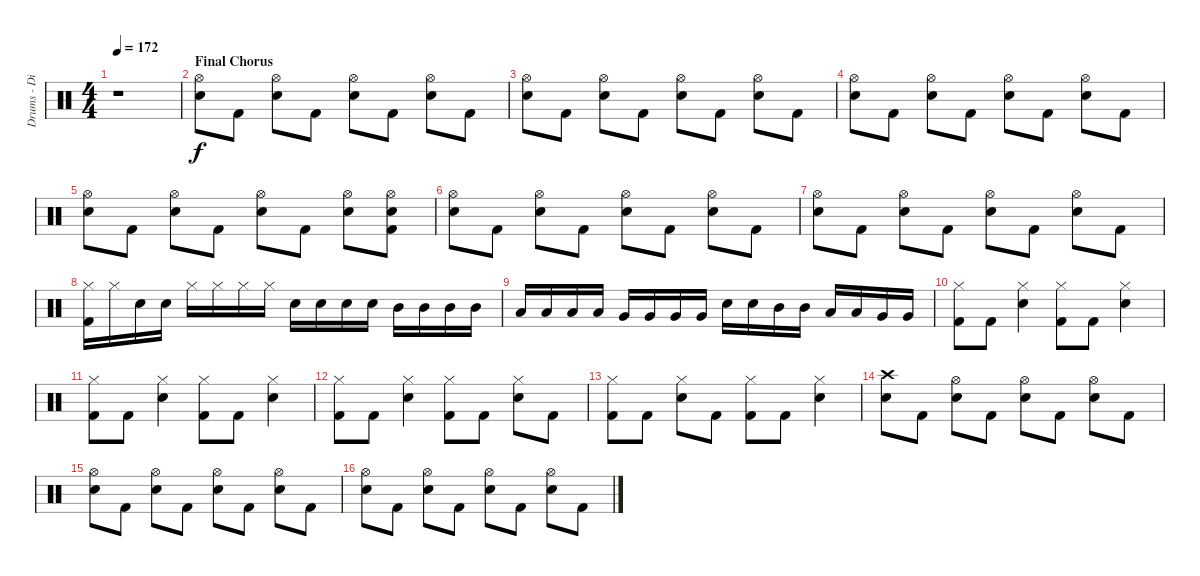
\track ("Drums - Dino Campanella" "Drums - Di") {instrument percussion}
\staff {score}
\articulation defaults
\ts (4 4)
\tempo 172
\clef neutral
\ks c
r.1{dy ppp} |
\section ("" "Final Chorus")
("Hi-Hat (open)" "Electric Snare (hit)").8{dy f} "Kick (hit) 2".8 ("Hi-Hat (open)" "Electric Snare (hit)").8 "Kick (hit) 2".8 ("Hi-Hat (open)" "Electric Snare (hit)").8 "Kick (hit) 2".8 ("Hi-Hat (open)" "Electric Snare (hit)").8 "Kick (hit) 2".8 |
("Hi-Hat (open)" "Electric Snare (hit)").8 "Kick (hit) 2".8 ("Hi-Hat (open)" "Electric Snare (hit)").8 "Kick (hit) 2".8 ("Hi-Hat (open)" "Electric Snare (hit)").8 "Kick (hit) 2".8 ("Hi-Hat (open)" "Electric Snare (hit)").8 "Kick (hit) 2".8 |
("Hi-Hat (open)" "Electric Snare (hit)").8 "Kick (hit) 2".8 ("Hi-Hat (open)" "Electric Snare (hit)").8 "Kick (hit) 2".8 ("Hi-Hat (open)" "Electric Snare (hit)").8 "Kick (hit) 2".8 ("Hi-Hat (open)" "Electric Snare (hit)").8 "Kick (hit) 2".8 |
("Hi-Hat (open)" "Electric Snare (hit)").8 "Kick (hit) 2".8 ("Hi-Hat (open)" "Electric Snare (hit)").8 "Kick (hit) 2".8 ("Hi-Hat (open)" "Electric Snare (hit)").8 "Kick (hit) 2".8 ("Hi-Hat (open)" "Electric Snare (hit)").8 ("Hi-Hat (open)" "Electric Snare (hit)" "Kick (hit) 2").8 |
("Hi-Hat (open)" "Electric Snare (hit)").8 "Kick (hit) 2".8 ("Hi-Hat (open)" "Electric Snare (hit)").8 "Kick (hit) 2".8 ("Hi-Hat (open)" "Electric Snare (hit)").8 "Kick (hit) 2".8 ("Hi-Hat (open)" "Electric Snare (hit)").8 "Kick (hit) 2".8 |
("Hi-Hat (open)" "Electric Snare (hit)").8 "Kick (hit) 2".8 ("Hi-Hat (open)" "Electric Snare (hit)").8 "Kick (hit) 2".8 ("Hi-Hat (open)" "Electric Snare (hit)").8 "Kick (hit) 2".8 ("Hi-Hat (open)" "Electric Snare (hit)").8 "Kick (hit) 2".8 |
("Hi-Hat (closed)" "Kick (hit) 2").16 "Hi-Hat (closed)".16 "Electric Snare (hit)".16 "Electric Snare (hit)".16 "Hi-Hat (closed)".16 "Hi-Hat (closed)".16 "Hi-Hat (closed)".16 "Hi-Hat (closed)".16 "Electric Snare (hit)".16 "Electric Snare (hit)".16 "Electric Snare (hit)".16 "Electric Snare (hit)".16 "Mid Tom (hit)".16 "Mid Tom (hit)".16 "Mid Tom (hit)".16 "Mid Tom (hit)".16 |
"Low Tom (hit)".16 "Low Tom (hit)".16 "Low Tom (hit)".16 "Low Tom (hit)".16 "Very Low Tom (hit)".16 "Very Low Tom (hit)".16 "Very Low Tom (hit)".16 "Very Low Tom (hit)".16 "Electric Snare (hit)".16 "Electric Snare (hit)".16 "Mid Tom (hit)".16 "Mid Tom (hit)".16 "Low Tom (hit)".16 "Low Tom (hit)".16 "Very Low Tom (hit)".16 "Very Low Tom (hit)".16 |
("Hi-Hat (closed)" "Kick (hit) 2").8 "Kick (hit) 2".8 ("Hi-Hat (closed)" "Electric Snare (hit)").4 ("Hi-Hat (closed)" "Kick (hit) 2").8 "Kick (hit) 2".8 ("Hi-Hat (closed)" "Electric Snare (hit)").4 |
("Hi-Hat (closed)" "Kick (hit) 2").8 "Kick (hit) 2".8 ("Hi-Hat (closed)" "Electric Snare (hit)").4 ("Hi-Hat (closed)" "Kick (hit) 2").8 "Kick (hit) 2".8 ("Hi-Hat (closed)" "Electric Snare (hit)").4 |
("Hi-Hat (closed)" "Kick (hit) 2").8 "Kick (hit) 2".8 ("Hi-Hat (closed)" "Electric Snare (hit)").4 ("Hi-Hat (closed)" "Kick (hit) 2").8 "Kick (hit) 2".8 ("Hi-Hat (closed)" "Electric Snare (hit)").8 "Kick (hit) 2".8 |
("Hi-Hat (closed)" "Kick (hit) 2").8 "Kick (hit) 2".8 ("Hi-Hat (closed)" "Electric Snare (hit)").8 "Kick (hit) 2".8 ("Hi-Hat (closed)" "Kick (hit) 2").8 "Kick (hit) 2".8 ("Hi-Hat (closed)" "Electric Snare (hit)").4 |
("Crash high (hit)" "Electric Snare (hit)").8 "Kick (hit) 2".8 ("Hi-Hat (open)" "Electric Snare (hit)").8 "Kick (hit) 2".8 ("Hi-Hat (open)" "Electric Snare (hit)").8 "Kick (hit) 2".8 ("Hi-Hat (open)" "Electric Snare (hit)").8 "Kick (hit) 2".8 |
("Hi-Hat (open)" "Electric Snare (hit)").8 "Kick (hit) 2".8 ("Hi-Hat (open)" "Electric Snare (hit)").8 "Kick (hit) 2".8 ("Hi-Hat (open)" "Electric Snare (hit)").8 "Kick (hit) 2".8 ("Hi-Hat (open)" "Electric Snare (hit)").8 "Kick (hit) 2".8 |
("Hi-Hat (open)" "Electric Snare (hit)").8 "Kick (hit) 2".8 ("Hi-Hat (open)" "Electric Snare (hit)").8 "Kick (hit) 2".8 ("Hi-Hat (open)" "Electric Snare (hit)").8 "Kick (hit) 2".8 ("Hi-Hat (open)" "Electric Snare (hit)").8 "Kick (hit) 2".8
